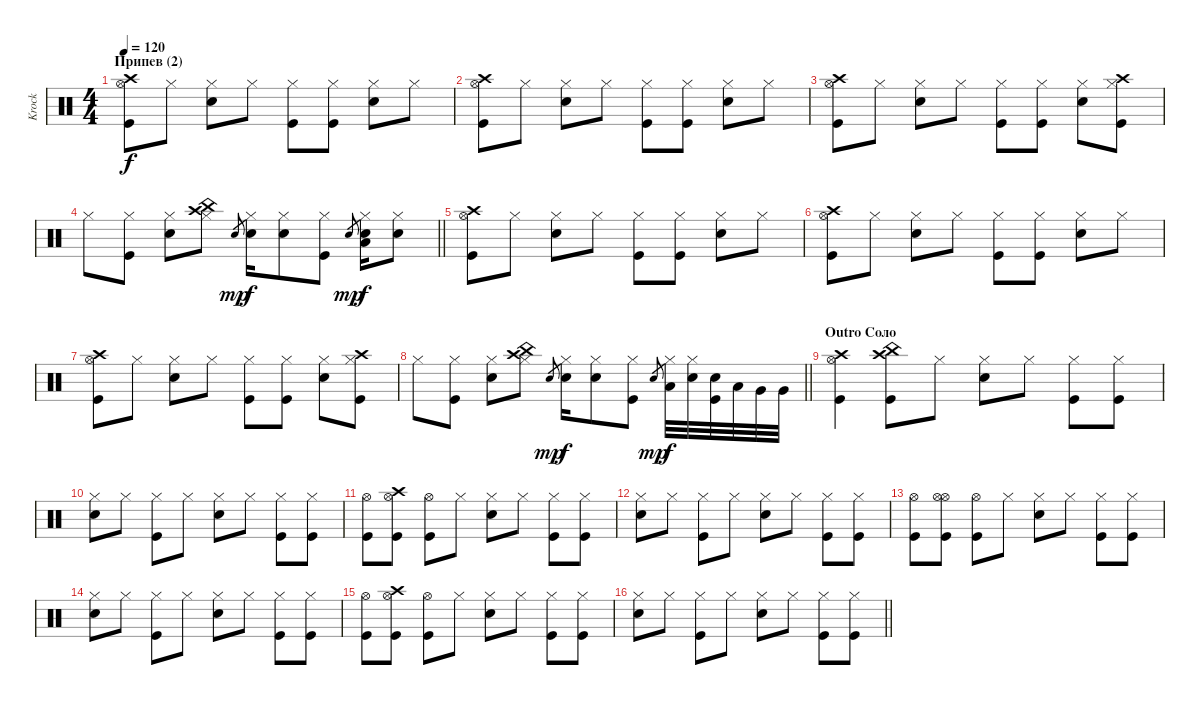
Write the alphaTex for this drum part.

\track ("Krock" "Krock") {instrument percussion}
\staff {score}
\articulation defaults
\ts (4 4)
\section ("" "Припев (2)")
\tempo 120
\clef neutral
\ks c
("Hi-Hat (open)" "Crash high (hit)" "Kick (hit)").8{dy f} "Hi-Hat (closed)".8 ("Hi-Hat (closed)" "Snare (hit) 2").8 "Hi-Hat (closed)".8 ("Hi-Hat (closed)" "Kick (hit)").8 ("Hi-Hat (closed)" "Kick (hit)").8 ("Hi-Hat (closed)" "Snare (hit) 2").8 "Hi-Hat (closed)".8 |
("Hi-Hat (open)" "Crash high (hit)" "Kick (hit)").8 "Hi-Hat (closed)".8 ("Hi-Hat (closed)" "Snare (hit) 2").8 "Hi-Hat (closed)".8 ("Hi-Hat (closed)" "Kick (hit)").8 ("Hi-Hat (closed)" "Kick (hit)").8 ("Hi-Hat (closed)" "Snare (hit) 2").8 "Hi-Hat (closed)".8 |
("Hi-Hat (open)" "Crash high (hit)" "Kick (hit)").8 "Hi-Hat (closed)".8 ("Hi-Hat (closed)" "Snare (hit) 2").8 "Hi-Hat (closed)".8 ("Hi-Hat (closed)" "Kick (hit)").8 ("Hi-Hat (closed)" "Kick (hit)").8 ("Hi-Hat (closed)" "Snare (hit) 2").8 ("Crash high (hit)" "Hi-Hat (closed)" "Kick (hit)").8 |
\barLineRight lightlight "Hi-Hat (closed)".8
("Hi-Hat (closed)" "Kick (hit)").8 ("Hi-Hat (closed)" "Snare (hit) 2").8 ("China (hit)" "Crash high (hit)" "Hi-Hat (closed)").8 "Snare (hit) 2".8{gr dy mp} ("Hi-Hat (closed)" "Snare (hit) 2").16{dy f} ("Hi-Hat (closed)" "Snare (hit) 2").8 ("Hi-Hat (closed)" "Kick (hit)").8 "Snare (hit) 2".8{gr dy mp} ("Hi-Hat (closed)" "Snare (hit) 2" "Low Floor Tom (hit)").16{dy f} ("Hi-Hat (closed)" "Snare (hit) 2").8 |
("Hi-Hat (open)" "Crash high (hit)" "Kick (hit)").8 "Hi-Hat (closed)".8 ("Hi-Hat (closed)" "Snare (hit) 2").8 "Hi-Hat (closed)".8 ("Hi-Hat (closed)" "Kick (hit)").8 ("Hi-Hat (closed)" "Kick (hit)").8 ("Hi-Hat (closed)" "Snare (hit) 2").8 "Hi-Hat (closed)".8 |
("Hi-Hat (open)" "Crash high (hit)" "Kick (hit)").8 "Hi-Hat (closed)".8 ("Hi-Hat (closed)" "Snare (hit) 2").8 "Hi-Hat (closed)".8 ("Hi-Hat (closed)" "Kick (hit)").8 ("Hi-Hat (closed)" "Kick (hit)").8 ("Hi-Hat (closed)" "Snare (hit) 2").8 "Hi-Hat (closed)".8 |
("Hi-Hat (open)" "Crash high (hit)" "Kick (hit)").8 "Hi-Hat (closed)".8 ("Hi-Hat (closed)" "Snare (hit) 2").8 "Hi-Hat (closed)".8 ("Hi-Hat (closed)" "Kick (hit)").8 ("Hi-Hat (closed)" "Kick (hit)").8 ("Hi-Hat (closed)" "Snare (hit) 2").8 ("Crash high (hit)" "Hi-Hat (closed)" "Kick (hit)").8 |
\barLineRight lightlight "Hi-Hat (closed)".8
("Hi-Hat (closed)" "Kick (hit)").8 ("Hi-Hat (closed)" "Snare (hit) 2").8 ("China (hit)" "Crash high (hit)" "Hi-Hat (closed)").8 "Snare (hit) 2".8{gr dy mp} ("Hi-Hat (closed)" "Snare (hit) 2").16{dy f} ("Hi-Hat (closed)" "Snare (hit) 2").8 ("Hi-Hat (closed)" "Kick (hit)").8 "Snare (hit) 2".8{gr dy mp} ("Hi-Hat (closed)" "Low Floor Tom (hit)").32{dy f} ("Hi-Hat (closed)" "Snare (hit) 2").32 ("Snare (hit) 2" "Kick (hit)").32 "Low Tom (hit)".32 "Very Low Tom (hit)".32 "Very Low Tom (hit)".32 |
\section ("" "Outro Соло ")
("Hi-Hat (open)" "Crash high (hit)" "Kick (hit)").4 ("China (hit)" "Crash high (hit)" "Kick (hit)").8 "Hi-Hat (closed)".8 ("Hi-Hat (closed)" "Snare (hit) 2").8 "Hi-Hat (closed)".8 ("Hi-Hat (closed)" "Kick (hit)").8 ("Hi-Hat (closed)" "Kick (hit)").8 |
("Hi-Hat (closed)" "Snare (hit) 2").8 "Hi-Hat (closed)".8 ("Hi-Hat (closed)" "Kick (hit)").8 "Hi-Hat (closed)".8 ("Hi-Hat (closed)" "Snare (hit) 2").8 "Hi-Hat (closed)".8 ("Hi-Hat (closed)" "Kick (hit)").8 ("Hi-Hat (closed)" "Kick (hit)").8 |
("Hi-Hat (open)" "Kick (hit)").8 ("Crash high (hit)" "Hi-Hat (open)" "Kick (hit)").8 ("Hi-Hat (open)" "Kick (hit)").8 "Hi-Hat (closed)".8 ("Hi-Hat (closed)" "Snare (hit) 2").8 "Hi-Hat (closed)".8 ("Hi-Hat (closed)" "Kick (hit)").8 ("Hi-Hat (closed)" "Kick (hit)").8 |
("Hi-Hat (closed)" "Snare (hit) 2").8 "Hi-Hat (closed)".8 ("Hi-Hat (closed)" "Kick (hit)").8 "Hi-Hat (closed)".8 ("Hi-Hat (closed)" "Snare (hit) 2").8 "Hi-Hat (closed)".8 ("Hi-Hat (closed)" "Kick (hit)").8 ("Hi-Hat (closed)" "Kick (hit)").8 |
("Hi-Hat (open)" "Kick (hit)").8 ("Hi-Hat (open)" "Hi-Hat (open)" "Kick (hit)").8 ("Hi-Hat (open)" "Kick (hit)").8 "Hi-Hat (closed)".8 ("Hi-Hat (closed)" "Snare (hit) 2").8 "Hi-Hat (closed)".8 ("Hi-Hat (closed)" "Kick (hit)").8 ("Hi-Hat (closed)" "Kick (hit)").8 |
("Hi-Hat (closed)" "Snare (hit) 2").8 "Hi-Hat (closed)".8 ("Hi-Hat (closed)" "Kick (hit)").8 "Hi-Hat (closed)".8 ("Hi-Hat (closed)" "Snare (hit) 2").8 "Hi-Hat (closed)".8 ("Hi-Hat (closed)" "Kick (hit)").8 ("Hi-Hat (closed)" "Kick (hit)").8 |
("Hi-Hat (open)" "Kick (hit)").8 ("Crash high (hit)" "Hi-Hat (open)" "Kick (hit)").8 ("Hi-Hat (open)" "Kick (hit)").8 "Hi-Hat (closed)".8 ("Hi-Hat (closed)" "Snare (hit) 2").8 "Hi-Hat (closed)".8 ("Hi-Hat (closed)" "Kick (hit)").8 ("Hi-Hat (closed)" "Kick (hit)").8 |
\barLineRight lightlight
("Hi-Hat (closed)" "Snare (hit) 2").8 "Hi-Hat (closed)".8 ("Hi-Hat (closed)" "Kick (hit)").8 "Hi-Hat (closed)".8 ("Hi-Hat (closed)" "Snare (hit) 2").8 "Hi-Hat (closed)".8 ("Hi-Hat (closed)" "Kick (hit)").8 ("Hi-Hat (closed)" "Kick (hit)").8
